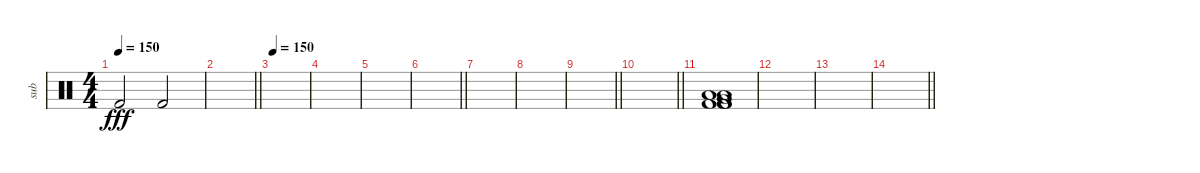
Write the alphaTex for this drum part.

\track ("sub" "sub") {instrument percussion}
\staff {score}
\articulation defaults
\ts (4 4)
\tempo 150
\clef neutral
\ks c "Kick (hit) 2".2{dy fff} "Kick (hit) 2".2
|
\barLineRight lightlight
|
\section ("" "")
\tempo 150
|
|
|
\barLineRight lightlight
|
|
|
\barLineRight lightlight
|
\barLineRight lightlight
|
\section ("" "")
("Low Floor Tom (hit)" "Low Floor Tom (hit)" "Very Low Tom (hit)" "Kick (hit) 2" "Kick (hit) 2" "Kick (hit) 2").1 |
|
|
\barLineRight lightlight
